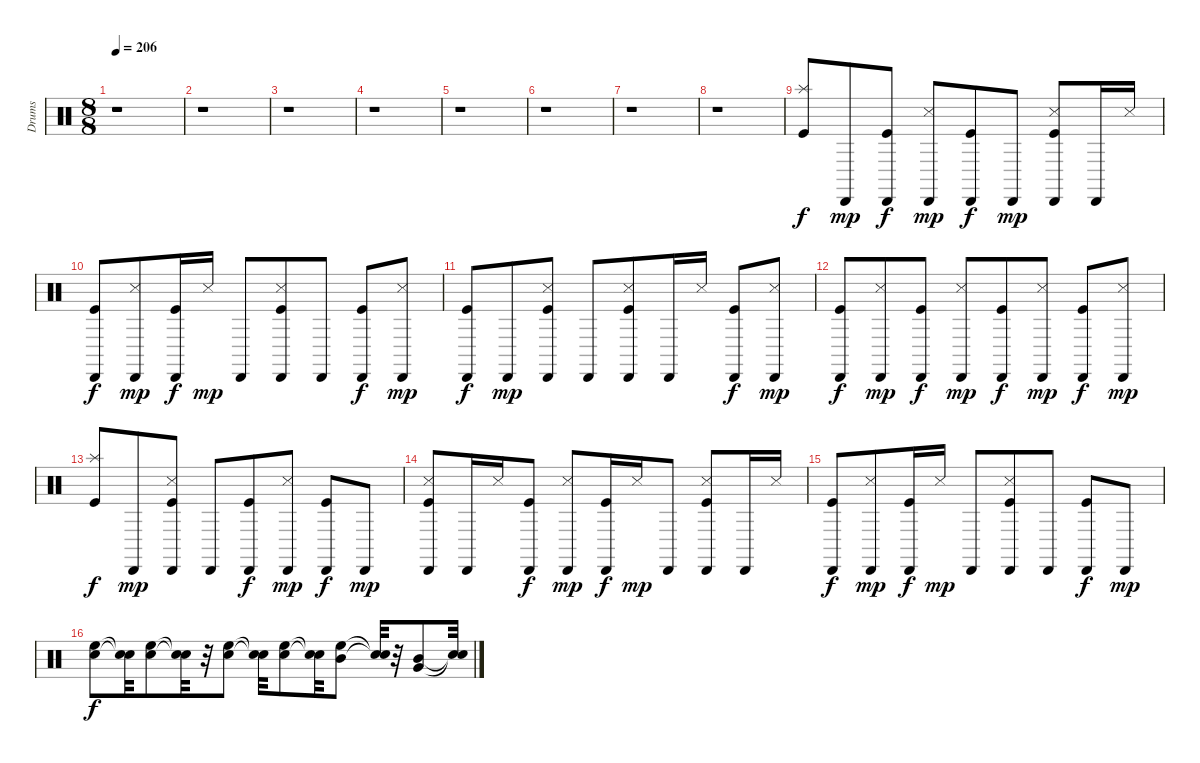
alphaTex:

\track ("Drums" "Drums") {instrument percussion}
\staff {score}
\articulation defaults
\ts (8 8)
\tempo 206
\clef neutral
\ks c
r.1{dy f} |
r.1 |
r.1 |
r.1 |
r.1 |
r.1 |
r.1 |
r.1 |
("Splash (hit)" "Kick (hit)").8 "Cabasa (hit)".8{dy mp} ("Kick (hit)" "Cabasa (hit)").8{dy f} ("Snare (side stick) 3" "Cabasa (hit)").8{dy mp} ("Kick (hit)" "Cabasa (hit)").8{dy f} "Cabasa (hit)".8{dy mp} ("Snare (side stick) 3" "Kick (hit)" "Cabasa (hit)").8 "Cabasa (hit)".16 "Snare (side stick) 3".16 |
("Kick (hit)" "Cabasa (hit)").8{dy f} ("Snare (side stick) 3" "Cabasa (hit)").8{dy mp} ("Kick (hit)" "Cabasa (hit)").16{dy f} "Snare (side stick) 3".16{dy mp} "Cabasa (hit)".8 ("Snare (side stick) 3" "Kick (hit)" "Cabasa (hit)").8 "Cabasa (hit)".8 ("Kick (hit)" "Cabasa (hit)").8{dy f} ("Snare (side stick) 3" "Cabasa (hit)").8{dy mp} |
("Kick (hit)" "Cabasa (hit)").8{dy f} "Cabasa (hit)".8{dy mp} ("Snare (side stick) 3" "Kick (hit)" "Cabasa (hit)").8 "Cabasa (hit)".8 ("Snare (side stick) 3" "Kick (hit)" "Cabasa (hit)").8 "Cabasa (hit)".16 "Snare (side stick) 3".16 ("Kick (hit)" "Cabasa (hit)").8{dy f} ("Snare (side stick) 3" "Cabasa (hit)").8{dy mp} |
("Kick (hit)" "Cabasa (hit)").8{dy f} ("Snare (side stick) 3" "Cabasa (hit)").8{dy mp} ("Kick (hit)" "Cabasa (hit)").8{dy f} ("Snare (side stick) 3" "Cabasa (hit)").8{dy mp} ("Kick (hit)" "Cabasa (hit)").8{dy f} ("Snare (side stick) 3" "Cabasa (hit)").8{dy mp} ("Kick (hit)" "Cabasa (hit)").8{dy f} ("Snare (side stick) 3" "Cabasa (hit)").8{dy mp} |
("Splash (hit)" "Kick (hit)").8{dy f} "Cabasa (hit)".8{dy mp} ("Snare (side stick) 3" "Kick (hit)" "Cabasa (hit)").8 "Cabasa (hit)".8 ("Kick (hit)" "Cabasa (hit)").8{dy f} ("Snare (side stick) 3" "Cabasa (hit)").8{dy mp} ("Kick (hit)" "Cabasa (hit)").8{dy f} "Cabasa (hit)".8{dy mp} |
("Snare (side stick) 3" "Kick (hit)" "Cabasa (hit)").8 "Cabasa (hit)".16 "Snare (side stick) 3".16 ("Kick (hit)" "Cabasa (hit)").8{dy f} ("Snare (side stick) 3" "Cabasa (hit)").8{dy mp} ("Kick (hit)" "Cabasa (hit)").16{dy f} "Snare (side stick) 3".16{dy mp} "Cabasa (hit)".8 ("Snare (side stick) 3" "Kick (hit)" "Cabasa (hit)").8 "Cabasa (hit)".16 "Snare (side stick) 3".16 |
("Kick (hit)" "Cabasa (hit)").8{dy f} ("Snare (side stick) 3" "Cabasa (hit)").8{dy mp} ("Kick (hit)" "Cabasa (hit)").16{dy f} "Snare (side stick) 3".16{dy mp} "Cabasa (hit)".8 ("Snare (side stick) 3" "Kick (hit)" "Cabasa (hit)").8 "Cabasa (hit)".8 ("Kick (hit)" "Cabasa (hit)").8{dy f} "Cabasa (hit)".8{dy mp} |
("High Floor Tom (hit)" "Electric Snare (hit)").8{dy f} ("Snare (hit)"{t} "Snare (hit)"{t}).32 ("High Floor Tom (hit)" "Electric Snare (hit)").8 ("Snare (hit)"{t} "Snare (hit)"{t}).32 r.32 ("High Floor Tom (hit)" "Electric Snare (hit)").8 ("Snare (hit)"{t} "Snare (hit)"{t}).32 ("Electric Snare (hit)" "High Floor Tom (hit)").8 ("Snare (hit)"{t} "Snare (hit)"{t}).32 ("Mid Tom (hit)" "High Floor Tom (hit)").8 ("Snare (hit)"{t} "Snare (hit)"{t}).32 r.32 ("Mid Tom (hit)" "Very Low Tom (hit)").8 ("Snare (hit)"{t} "Snare (hit)"{t}).32
